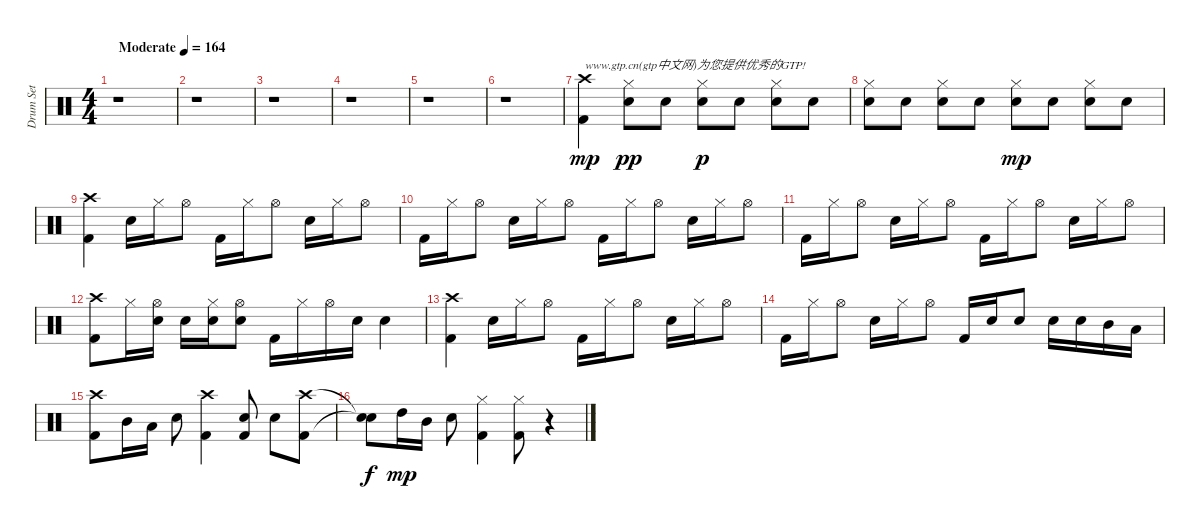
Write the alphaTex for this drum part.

\track ("Drum Set" "Drum Set") {instrument percussion}
\staff {score}
\articulation defaults
\ts (4 4)
\tempo (164 "Moderate")
\clef neutral
\ks c
r.1{dy mp} |
r.1 |
r.1 |
r.1 |
r.1 |
r.1 |
("Kick (hit) 2" "Crash high (hit)").4{txt "www.gtp.cn(gtp中文网)为您提供优秀的GTP!"} ("Snare (hit) 2" "Hi-Hat (closed)").8{dy pp} "Snare (hit) 2".8 ("Snare (hit) 2" "Hi-Hat (closed)").8{dy p} "Snare (hit) 2".8 ("Snare (hit) 2" "Hi-Hat (closed)").8 "Snare (hit) 2".8 |
("Snare (hit) 2" "Hi-Hat (closed)").8 "Snare (hit) 2".8 ("Snare (hit) 2" "Hi-Hat (closed)").8 "Snare (hit) 2".8 ("Snare (hit) 2" "Hi-Hat (closed)").8{dy mp} "Snare (hit) 2".8 ("Snare (hit) 2" "Hi-Hat (closed)").8 "Snare (hit) 2".8 |
("Kick (hit) 2" "Crash high (hit)").4 "Snare (hit) 2".16 "Hi-Hat (closed)".16 "Hi-Hat (open)".8 "Kick (hit) 2".16 "Hi-Hat (closed)".16 "Hi-Hat (open)".8 "Snare (hit) 2".16 "Hi-Hat (closed)".16 "Hi-Hat (open)".8 |
"Kick (hit) 2".16 "Hi-Hat (closed)".16 "Hi-Hat (open)".8 "Snare (hit) 2".16 "Hi-Hat (closed)".16 "Hi-Hat (open)".8 "Kick (hit) 2".16 "Hi-Hat (closed)".16 "Hi-Hat (open)".8 "Snare (hit) 2".16 "Hi-Hat (closed)".16 "Hi-Hat (open)".8 |
"Kick (hit) 2".16 "Hi-Hat (closed)".16 "Hi-Hat (open)".8 "Snare (hit) 2".16 "Hi-Hat (closed)".16 "Hi-Hat (open)".8 "Kick (hit) 2".16 "Hi-Hat (closed)".16 "Hi-Hat (open)".8 "Snare (hit) 2".16 "Hi-Hat (closed)".16 "Hi-Hat (open)".8 |
("Kick (hit) 2" "Crash high (hit)").8 "Hi-Hat (closed)".16 ("Snare (hit) 2" "Hi-Hat (open)").16 "Snare (hit) 2".16 ("Snare (hit) 2" "Hi-Hat (closed)").16 ("Snare (hit) 2" "Hi-Hat (open)").8 "Kick (hit) 2".16 "Hi-Hat (closed)".16 "Hi-Hat (open)".16 "Snare (hit) 2".16 "Snare (hit) 2".4 |
("Kick (hit) 2" "Crash high (hit)").4 "Snare (hit) 2".16 "Hi-Hat (closed)".16 "Hi-Hat (open)".8 "Kick (hit) 2".16 "Hi-Hat (closed)".16 "Hi-Hat (open)".8 "Snare (hit) 2".16 "Hi-Hat (closed)".16 "Hi-Hat (open)".8 |
"Kick (hit) 2".16 "Hi-Hat (closed)".16 "Hi-Hat (open)".8 "Snare (hit) 2".16 "Hi-Hat (closed)".16 "Hi-Hat (open)".8 "Kick (hit) 2".16 "Snare (hit) 2".16 "Snare (hit) 2".8 "Snare (hit) 2".16 "Snare (hit) 2".16 "Mid Tom (hit)".16 "Low Tom (hit)".16 |
("Kick (hit) 2" "Crash high (hit)").8 "Mid Tom (hit)".16 "Low Tom (hit)".16 "Snare (hit) 2".8 ("Kick (hit) 2" "Crash high (hit)").4 ("Kick (hit) 2" "Snare (hit) 2").8 "Snare (hit) 2".8 ("Kick (hit) 2" "Crash high (hit)").8 |
("Snare (hit)"{t} "Snare (hit)"{t}).8{dy f} "High Tom (hit)".16{dy mp} "Mid Tom (hit)".16 "Snare (hit) 2".8 ("Kick (hit) 2" "Hi-Hat (closed)").4 ("Kick (hit) 2" "Hi-Hat (closed)").8 r.4
